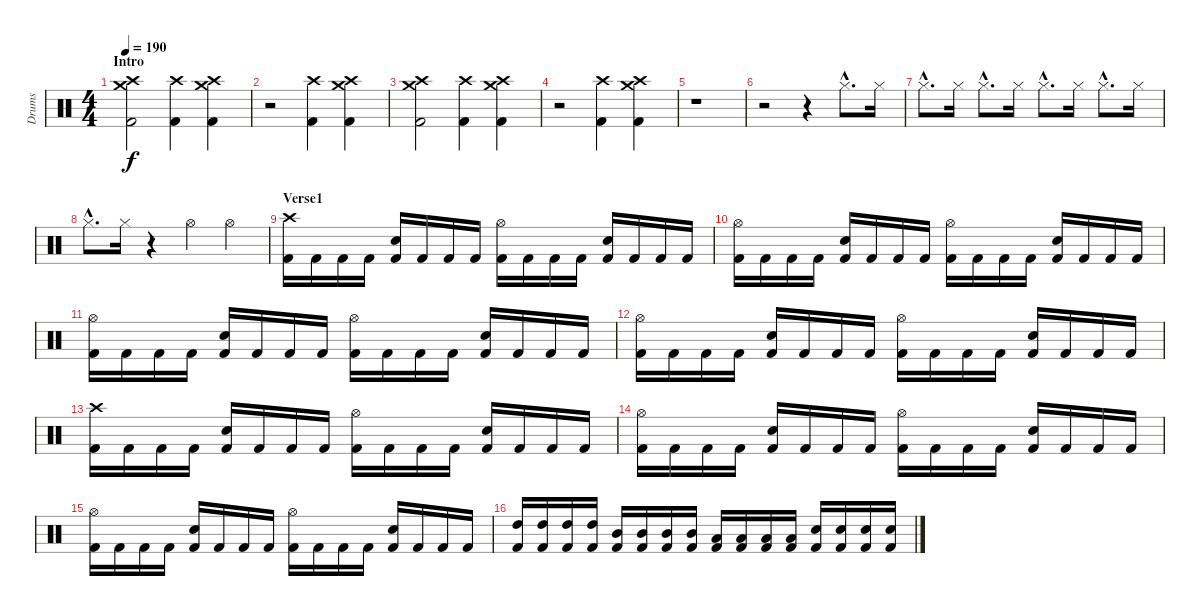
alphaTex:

\track ("Drums" "Drums") {instrument percussion}
\staff {score}
\articulation defaults
\ts (4 4)
\section ("" "Intro")
\tempo 190
\clef neutral
\ks c
("Kick (hit) 2" "Crash high (hit)" "Crash medium (hit)").2{dy f} ("Kick (hit) 2" "Crash high (hit)").4 ("Kick (hit) 2" "Crash high (hit)" "Crash medium (hit)").4 |
r.2 ("Kick (hit) 2" "Crash high (hit)").4 ("Kick (hit) 2" "Crash high (hit)" "Crash medium (hit)").4 |
("Kick (hit) 2" "Crash high (hit)" "Crash medium (hit)").2 ("Kick (hit) 2" "Crash high (hit)").4 ("Kick (hit) 2" "Crash high (hit)" "Crash medium (hit)").4 |
r.2 ("Kick (hit) 2" "Crash high (hit)").4 ("Kick (hit) 2" "Crash high (hit)" "Crash medium (hit)").4 |
r.1 |
r.2 r.4 "Hi-Hat (closed)"{hac}.8{d} "Hi-Hat (closed)".16 |
"Hi-Hat (closed)"{hac}.8{d} "Hi-Hat (closed)".16 "Hi-Hat (closed)"{hac}.8{d} "Hi-Hat (closed)".16 "Hi-Hat (closed)"{hac}.8{d} "Hi-Hat (closed)".16 "Hi-Hat (closed)"{hac}.8{d} "Hi-Hat (closed)".16 |
"Hi-Hat (closed)"{hac}.8{d} "Hi-Hat (closed)".16 r.4 "Hi-Hat (open)".4 "Hi-Hat (open)".4 |
\section ("" "Verse1")
("Kick (hit) 2" "Crash high (hit)").16 "Kick (hit) 2".16 "Kick (hit) 2".16 "Kick (hit) 2".16 ("Kick (hit) 2" "Electric Snare (hit)").16 "Kick (hit) 2".16 "Kick (hit) 2".16 "Kick (hit) 2".16 ("Kick (hit) 2" "Hi-Hat (open)").16 "Kick (hit) 2".16 "Kick (hit) 2".16 "Kick (hit) 2".16 ("Kick (hit) 2" "Electric Snare (hit)").16 "Kick (hit) 2".16 "Kick (hit) 2".16 "Kick (hit) 2".16 |
("Kick (hit) 2" "Hi-Hat (open)").16 "Kick (hit) 2".16 "Kick (hit) 2".16 "Kick (hit) 2".16 ("Kick (hit) 2" "Electric Snare (hit)").16 "Kick (hit) 2".16 "Kick (hit) 2".16 "Kick (hit) 2".16 ("Kick (hit) 2" "Hi-Hat (open)").16 "Kick (hit) 2".16 "Kick (hit) 2".16 "Kick (hit) 2".16 ("Kick (hit) 2" "Electric Snare (hit)").16 "Kick (hit) 2".16 "Kick (hit) 2".16 "Kick (hit) 2".16 |
("Kick (hit) 2" "Hi-Hat (open)").16 "Kick (hit) 2".16 "Kick (hit) 2".16 "Kick (hit) 2".16 ("Kick (hit) 2" "Electric Snare (hit)").16 "Kick (hit) 2".16 "Kick (hit) 2".16 "Kick (hit) 2".16 ("Kick (hit) 2" "Hi-Hat (open)").16 "Kick (hit) 2".16 "Kick (hit) 2".16 "Kick (hit) 2".16 ("Kick (hit) 2" "Electric Snare (hit)").16 "Kick (hit) 2".16 "Kick (hit) 2".16 "Kick (hit) 2".16 |
("Kick (hit) 2" "Hi-Hat (open)").16 "Kick (hit) 2".16 "Kick (hit) 2".16 "Kick (hit) 2".16 ("Kick (hit) 2" "Electric Snare (hit)").16 "Kick (hit) 2".16 "Kick (hit) 2".16 "Kick (hit) 2".16 ("Kick (hit) 2" "Hi-Hat (open)").16 "Kick (hit) 2".16 "Kick (hit) 2".16 "Kick (hit) 2".16 ("Kick (hit) 2" "Electric Snare (hit)").16 "Kick (hit) 2".16 "Kick (hit) 2".16 "Kick (hit) 2".16 |
("Kick (hit) 2" "Crash high (hit)").16 "Kick (hit) 2".16 "Kick (hit) 2".16 "Kick (hit) 2".16 ("Kick (hit) 2" "Electric Snare (hit)").16 "Kick (hit) 2".16 "Kick (hit) 2".16 "Kick (hit) 2".16 ("Kick (hit) 2" "Hi-Hat (open)").16 "Kick (hit) 2".16 "Kick (hit) 2".16 "Kick (hit) 2".16 ("Kick (hit) 2" "Electric Snare (hit)").16 "Kick (hit) 2".16 "Kick (hit) 2".16 "Kick (hit) 2".16 |
("Kick (hit) 2" "Hi-Hat (open)").16 "Kick (hit) 2".16 "Kick (hit) 2".16 "Kick (hit) 2".16 ("Kick (hit) 2" "Electric Snare (hit)").16 "Kick (hit) 2".16 "Kick (hit) 2".16 "Kick (hit) 2".16 ("Kick (hit) 2" "Hi-Hat (open)").16 "Kick (hit) 2".16 "Kick (hit) 2".16 "Kick (hit) 2".16 ("Kick (hit) 2" "Electric Snare (hit)").16 "Kick (hit) 2".16 "Kick (hit) 2".16 "Kick (hit) 2".16 |
("Kick (hit) 2" "Hi-Hat (open)").16 "Kick (hit) 2".16 "Kick (hit) 2".16 "Kick (hit) 2".16 ("Kick (hit) 2" "Electric Snare (hit)").16 "Kick (hit) 2".16 "Kick (hit) 2".16 "Kick (hit) 2".16 ("Kick (hit) 2" "Hi-Hat (open)").16 "Kick (hit) 2".16 "Kick (hit) 2".16 "Kick (hit) 2".16 ("Kick (hit) 2" "Electric Snare (hit)").16 "Kick (hit) 2".16 "Kick (hit) 2".16 "Kick (hit) 2".16 |
("Kick (hit) 2" "High Tom (hit)").16 ("Kick (hit) 2" "High Tom (hit)").16 ("Kick (hit) 2" "High Tom (hit)").16 ("Kick (hit) 2" "High Tom (hit)").16 ("Kick (hit) 2" "Mid Tom (hit)").16 ("Kick (hit) 2" "Mid Tom (hit)").16 ("Kick (hit) 2" "Mid Tom (hit)").16 ("Kick (hit) 2" "Mid Tom (hit)").16 ("Kick (hit) 2" "Low Tom (hit)").16 ("Kick (hit) 2" "Low Tom (hit)").16 ("Kick (hit) 2" "Low Tom (hit)").16 ("Kick (hit) 2" "Low Tom (hit)").16 ("Kick (hit) 2" "Electric Snare (hit)").16 ("Kick (hit) 2" "Electric Snare (hit)").16 ("Kick (hit) 2" "Electric Snare (hit)").16 ("Kick (hit) 2" "Electric Snare (hit)").16
